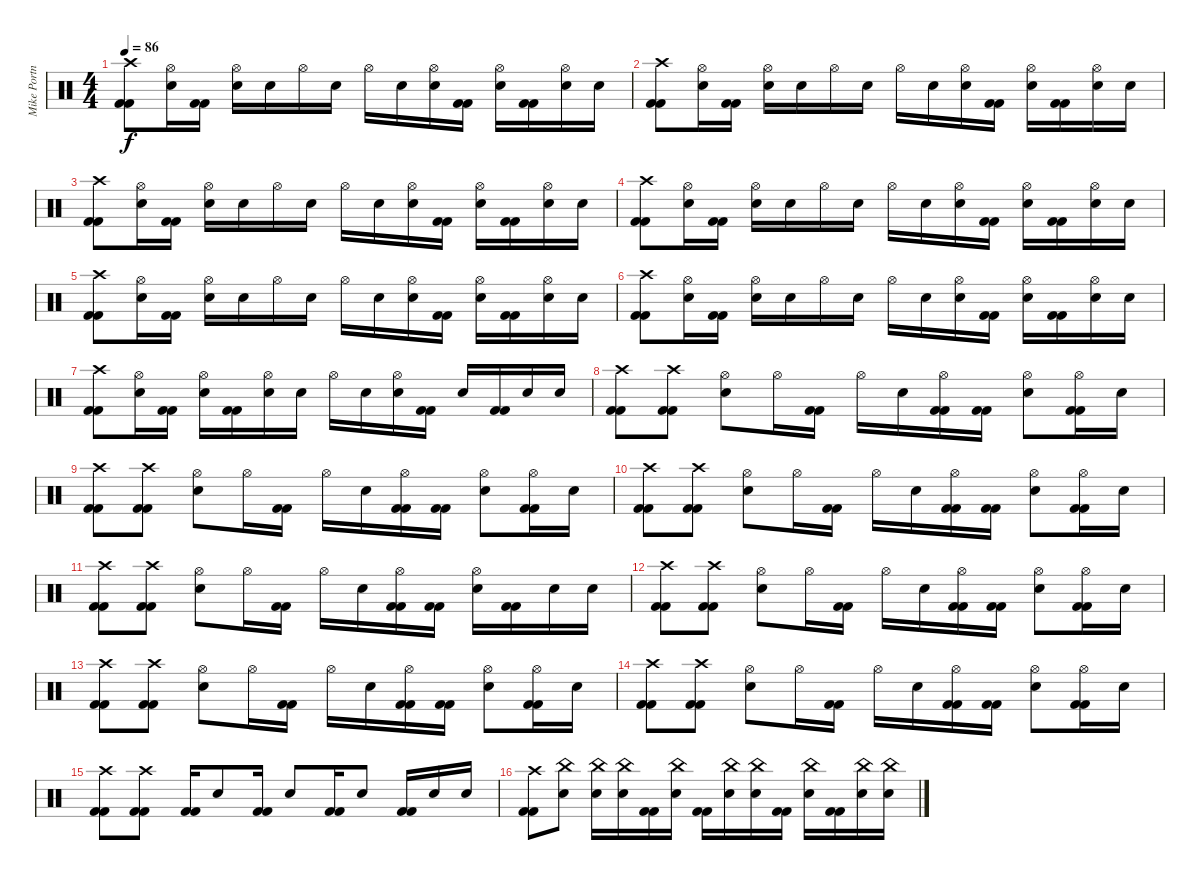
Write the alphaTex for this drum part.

\track ("Mike Portnoy - Drum" "Mike Portn") {instrument percussion}
\staff {score}
\articulation defaults
\ts (4 4)
\tempo 86
\clef neutral
\ks c
("Crash high (hit)" "Kick (hit) 2" "Kick (hit) 2").8{dy f} ("Hi-Hat (open)" "Snare (hit) 2").16 ("Kick (hit) 2" "Kick (hit) 2").16 ("Hi-Hat (open)" "Snare (hit) 2").16 "Snare (hit) 2".16 "Hi-Hat (open)".16 "Snare (hit) 2".16 "Hi-Hat (open)".16 "Snare (hit) 2".16 ("Hi-Hat (open)" "Snare (hit) 2").16 ("Kick (hit) 2" "Kick (hit) 2").16 ("Hi-Hat (open)" "Snare (hit) 2").16 ("Kick (hit) 2" "Kick (hit) 2").16 ("Hi-Hat (open)" "Snare (hit) 2").16 "Snare (hit) 2".16 |
("Crash high (hit)" "Kick (hit) 2" "Kick (hit) 2").8 ("Hi-Hat (open)" "Snare (hit) 2").16 ("Kick (hit) 2" "Kick (hit) 2").16 ("Hi-Hat (open)" "Snare (hit) 2").16 "Snare (hit) 2".16 "Hi-Hat (open)".16 "Snare (hit) 2".16 "Hi-Hat (open)".16 "Snare (hit) 2".16 ("Hi-Hat (open)" "Snare (hit) 2").16 ("Kick (hit) 2" "Kick (hit) 2").16 ("Hi-Hat (open)" "Snare (hit) 2").16 ("Kick (hit) 2" "Kick (hit) 2").16 ("Hi-Hat (open)" "Snare (hit) 2").16 "Snare (hit) 2".16 |
("Crash high (hit)" "Kick (hit) 2" "Kick (hit) 2").8 ("Hi-Hat (open)" "Snare (hit) 2").16 ("Kick (hit) 2" "Kick (hit) 2").16 ("Hi-Hat (open)" "Snare (hit) 2").16 "Snare (hit) 2".16 "Hi-Hat (open)".16 "Snare (hit) 2".16 "Hi-Hat (open)".16 "Snare (hit) 2".16 ("Hi-Hat (open)" "Snare (hit) 2").16 ("Kick (hit) 2" "Kick (hit) 2").16 ("Hi-Hat (open)" "Snare (hit) 2").16 ("Kick (hit) 2" "Kick (hit) 2").16 ("Hi-Hat (open)" "Snare (hit) 2").16 "Snare (hit) 2".16 |
("Crash high (hit)" "Kick (hit) 2" "Kick (hit) 2").8 ("Hi-Hat (open)" "Snare (hit) 2").16 ("Kick (hit) 2" "Kick (hit) 2").16 ("Hi-Hat (open)" "Snare (hit) 2").16 "Snare (hit) 2".16 "Hi-Hat (open)".16 "Snare (hit) 2".16 "Hi-Hat (open)".16 "Snare (hit) 2".16 ("Hi-Hat (open)" "Snare (hit) 2").16 ("Kick (hit) 2" "Kick (hit) 2").16 ("Hi-Hat (open)" "Snare (hit) 2").16 ("Kick (hit) 2" "Kick (hit) 2").16 ("Hi-Hat (open)" "Snare (hit) 2").16 "Snare (hit) 2".16 |
("Crash high (hit)" "Kick (hit) 2" "Kick (hit) 2").8 ("Hi-Hat (open)" "Snare (hit) 2").16 ("Kick (hit) 2" "Kick (hit) 2").16 ("Hi-Hat (open)" "Snare (hit) 2").16 "Snare (hit) 2".16 "Hi-Hat (open)".16 "Snare (hit) 2".16 "Hi-Hat (open)".16 "Snare (hit) 2".16 ("Hi-Hat (open)" "Snare (hit) 2").16 ("Kick (hit) 2" "Kick (hit) 2").16 ("Hi-Hat (open)" "Snare (hit) 2").16 ("Kick (hit) 2" "Kick (hit) 2").16 ("Hi-Hat (open)" "Snare (hit) 2").16 "Snare (hit) 2".16 |
("Crash high (hit)" "Kick (hit) 2" "Kick (hit) 2").8 ("Hi-Hat (open)" "Snare (hit) 2").16 ("Kick (hit) 2" "Kick (hit) 2").16 ("Hi-Hat (open)" "Snare (hit) 2").16 "Snare (hit) 2".16 "Hi-Hat (open)".16 "Snare (hit) 2".16 "Hi-Hat (open)".16 "Snare (hit) 2".16 ("Hi-Hat (open)" "Snare (hit) 2").16 ("Kick (hit) 2" "Kick (hit) 2").16 ("Hi-Hat (open)" "Snare (hit) 2").16 ("Kick (hit) 2" "Kick (hit) 2").16 ("Hi-Hat (open)" "Snare (hit) 2").16 "Snare (hit) 2".16 |
("Crash high (hit)" "Kick (hit) 2" "Kick (hit) 2").8 ("Hi-Hat (open)" "Snare (hit) 2").16 ("Kick (hit) 2" "Kick (hit) 2").16 ("Hi-Hat (open)" "Snare (hit) 2").16 ("Kick (hit) 2" "Kick (hit) 2").16 ("Hi-Hat (open)" "Snare (hit) 2").16 "Snare (hit) 2".16 "Hi-Hat (open)".16 "Snare (hit) 2".16 ("Hi-Hat (open)" "Snare (hit) 2").16 ("Kick (hit) 2" "Kick (hit) 2").16 "Snare (hit) 2".16 ("Kick (hit) 2" "Kick (hit) 2").16 "Snare (hit) 2".16 "Snare (hit) 2".16 |
("Crash high (hit)" "Kick (hit) 2" "Kick (hit) 2").8 ("Crash high (hit)" "Kick (hit) 2" "Kick (hit) 2").8 ("Hi-Hat (open)" "Snare (hit) 2").8 "Hi-Hat (open)".16 ("Kick (hit) 2" "Kick (hit) 2").16 "Hi-Hat (open)".16 "Snare (hit) 2".16 ("Hi-Hat (open)" "Kick (hit) 2" "Kick (hit) 2").16 ("Kick (hit) 2" "Kick (hit) 2").16 ("Hi-Hat (open)" "Snare (hit) 2").8 ("Hi-Hat (open)" "Kick (hit) 2" "Kick (hit) 2").16 "Snare (hit) 2".16 |
("Crash high (hit)" "Kick (hit) 2" "Kick (hit) 2").8 ("Crash high (hit)" "Kick (hit) 2" "Kick (hit) 2").8 ("Hi-Hat (open)" "Snare (hit) 2").8 "Hi-Hat (open)".16 ("Kick (hit) 2" "Kick (hit) 2").16 "Hi-Hat (open)".16 "Snare (hit) 2".16 ("Hi-Hat (open)" "Kick (hit) 2" "Kick (hit) 2").16 ("Kick (hit) 2" "Kick (hit) 2").16 ("Hi-Hat (open)" "Snare (hit) 2").8 ("Hi-Hat (open)" "Kick (hit) 2" "Kick (hit) 2").16 "Snare (hit) 2".16 |
("Crash high (hit)" "Kick (hit) 2" "Kick (hit) 2").8 ("Crash high (hit)" "Kick (hit) 2" "Kick (hit) 2").8 ("Hi-Hat (open)" "Snare (hit) 2").8 "Hi-Hat (open)".16 ("Kick (hit) 2" "Kick (hit) 2").16 "Hi-Hat (open)".16 "Snare (hit) 2".16 ("Hi-Hat (open)" "Kick (hit) 2" "Kick (hit) 2").16 ("Kick (hit) 2" "Kick (hit) 2").16 ("Hi-Hat (open)" "Snare (hit) 2").8 ("Hi-Hat (open)" "Kick (hit) 2" "Kick (hit) 2").16 "Snare (hit) 2".16 |
("Crash high (hit)" "Kick (hit) 2" "Kick (hit) 2").8 ("Crash high (hit)" "Kick (hit) 2" "Kick (hit) 2").8 ("Hi-Hat (open)" "Snare (hit) 2").8 "Hi-Hat (open)".16 ("Kick (hit) 2" "Kick (hit) 2").16 "Hi-Hat (open)".16 "Snare (hit) 2".16 ("Hi-Hat (open)" "Kick (hit) 2" "Kick (hit) 2").16 ("Kick (hit) 2" "Kick (hit) 2").16 ("Hi-Hat (open)" "Snare (hit) 2").16 ("Kick (hit) 2" "Kick (hit) 2").16 "Snare (hit) 2".16 "Snare (hit) 2".16 |
("Crash high (hit)" "Kick (hit) 2" "Kick (hit) 2").8 ("Crash high (hit)" "Kick (hit) 2" "Kick (hit) 2").8 ("Hi-Hat (open)" "Snare (hit) 2").8 "Hi-Hat (open)".16 ("Kick (hit) 2" "Kick (hit) 2").16 "Hi-Hat (open)".16 "Snare (hit) 2".16 ("Hi-Hat (open)" "Kick (hit) 2" "Kick (hit) 2").16 ("Kick (hit) 2" "Kick (hit) 2").16 ("Hi-Hat (open)" "Snare (hit) 2").8 ("Hi-Hat (open)" "Kick (hit) 2" "Kick (hit) 2").16 "Snare (hit) 2".16 |
("Crash high (hit)" "Kick (hit) 2" "Kick (hit) 2").8 ("Crash high (hit)" "Kick (hit) 2" "Kick (hit) 2").8 ("Hi-Hat (open)" "Snare (hit) 2").8 "Hi-Hat (open)".16 ("Kick (hit) 2" "Kick (hit) 2").16 "Hi-Hat (open)".16 "Snare (hit) 2".16 ("Hi-Hat (open)" "Kick (hit) 2" "Kick (hit) 2").16 ("Kick (hit) 2" "Kick (hit) 2").16 ("Hi-Hat (open)" "Snare (hit) 2").8 ("Hi-Hat (open)" "Kick (hit) 2" "Kick (hit) 2").16 "Snare (hit) 2".16 |
("Crash high (hit)" "Kick (hit) 2" "Kick (hit) 2").8 ("Crash high (hit)" "Kick (hit) 2" "Kick (hit) 2").8 ("Hi-Hat (open)" "Snare (hit) 2").8 "Hi-Hat (open)".16 ("Kick (hit) 2" "Kick (hit) 2").16 "Hi-Hat (open)".16 "Snare (hit) 2".16 ("Hi-Hat (open)" "Kick (hit) 2" "Kick (hit) 2").16 ("Kick (hit) 2" "Kick (hit) 2").16 ("Hi-Hat (open)" "Snare (hit) 2").8 ("Hi-Hat (open)" "Kick (hit) 2" "Kick (hit) 2").16 "Snare (hit) 2".16 |
("Crash high (hit)" "Kick (hit) 2" "Kick (hit) 2").8 ("Crash high (hit)" "Kick (hit) 2" "Kick (hit) 2").8 ("Kick (hit) 2" "Kick (hit) 2").16 "Snare (hit) 2".8 ("Kick (hit) 2" "Kick (hit) 2").16 "Snare (hit) 2".8 ("Kick (hit) 2" "Kick (hit) 2").16 "Snare (hit) 2".8 ("Kick (hit) 2" "Kick (hit) 2").16 "Snare (hit) 2".16 "Snare (hit) 2".16 |
("Crash high (hit)" "Kick (hit) 2" "Kick (hit) 2").8 ("China (hit)" "Snare (hit) 2").8 ("China (hit)" "Snare (hit) 2").16 ("China (hit)" "Snare (hit) 2").16 ("Kick (hit) 2" "Kick (hit) 2").16 ("China (hit)" "Snare (hit) 2").16 ("Kick (hit) 2" "Kick (hit) 2").16 ("China (hit)" "Snare (hit) 2").16 ("China (hit)" "Snare (hit) 2").16 ("Kick (hit) 2" "Kick (hit) 2").16 ("China (hit)" "Snare (hit) 2").16 ("Kick (hit) 2" "Kick (hit) 2").16 ("China (hit)" "Snare (hit) 2").16 ("China (hit)" "Snare (hit) 2").16
